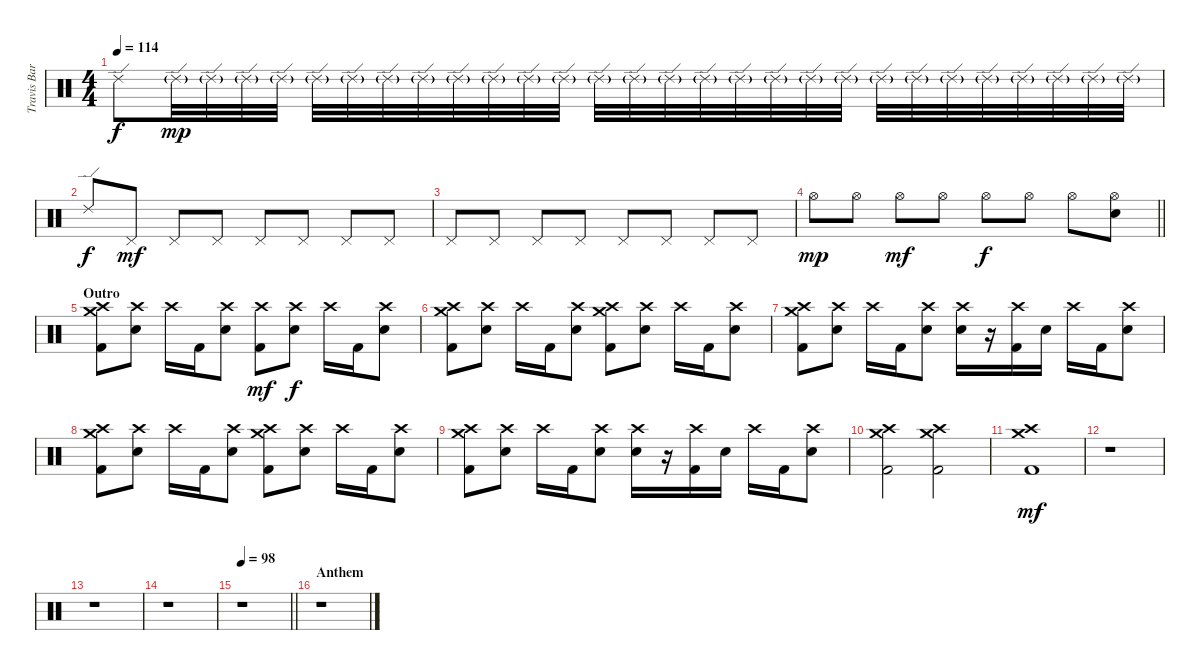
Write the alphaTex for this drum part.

\track ("Travis Barker" "Travis Bar") {instrument percussion}
\staff {score}
\articulation defaults
\ts (4 4)
\tempo 114
\clef neutral
\ks c "Ride (edge) 2".8{dy f} "Ride (edge) 2"{g}.32{dy mp} "Ride (edge) 2"{g}.32 "Ride (edge) 2"{g}.32 "Ride (edge) 2"{g}.32 "Ride (edge) 2"{g}.32 "Ride (edge) 2"{g}.32 "Ride (edge) 2"{g}.32 "Ride (edge) 2"{g}.32 "Ride (edge) 2"{g}.32 "Ride (edge) 2"{g}.32 "Ride (edge) 2"{g}.32 "Ride (edge) 2"{g}.32 "Ride (edge) 2"{g}.32 "Ride (edge) 2"{g}.32 "Ride (edge) 2"{g}.32 "Ride (edge) 2"{g}.32 "Ride (edge) 2"{g}.32 "Ride (edge) 2"{g}.32 "Ride (edge) 2"{g}.32 "Ride (edge) 2"{g}.32 "Ride (edge) 2"{g}.32 "Ride (edge) 2"{g}.32 "Ride (edge) 2"{g}.32 "Ride (edge) 2"{g}.32 "Ride (edge) 2"{g}.32 "Ride (edge) 2"{g}.32 "Ride (edge) 2"{g}.32 "Ride (edge) 2"{g}.32
|
"Ride (edge) 2".8{dy f} "Pedal Hi-Hat (hit)".8{dy mf} "Pedal Hi-Hat (hit)".8 "Pedal Hi-Hat (hit)".8 "Pedal Hi-Hat (hit)".8 "Pedal Hi-Hat (hit)".8 "Pedal Hi-Hat (hit)".8 "Pedal Hi-Hat (hit)".8 |
"Pedal Hi-Hat (hit)".8 "Pedal Hi-Hat (hit)".8 "Pedal Hi-Hat (hit)".8 "Pedal Hi-Hat (hit)".8 "Pedal Hi-Hat (hit)".8 "Pedal Hi-Hat (hit)".8 "Pedal Hi-Hat (hit)".8 "Pedal Hi-Hat (hit)".8 |
\barLineRight lightlight "Hi-Hat (open)".8{dy mp} "Hi-Hat (open)".8 "Hi-Hat (open)".8{dy mf} "Hi-Hat (open)".8 "Hi-Hat (open)".8{dy f} "Hi-Hat (open)".8 "Hi-Hat (open)".8
("Hi-Hat (open)" "Electric Snare (hit)").8 |
\section ("" "Outro")
("Crash medium (hit)" "Crash high (hit)" "Kick (hit) 2").8 ("Crash high (hit)" "Electric Snare (hit)").8 "Crash high (hit)".16 "Kick (hit) 2".16 ("Crash high (hit)" "Electric Snare (hit)").8 ("Crash high (hit)" "Kick (hit) 2").8{dy mf} ("Crash high (hit)" "Electric Snare (hit)").8{dy f} "Crash high (hit)".16 "Kick (hit) 2".16 ("Crash high (hit)" "Electric Snare (hit)").8 |
("Crash medium (hit)" "Crash high (hit)" "Kick (hit) 2").8 ("Crash high (hit)" "Electric Snare (hit)").8 "Crash high (hit)".16 "Kick (hit) 2".16 ("Crash high (hit)" "Electric Snare (hit)").8 ("Crash medium (hit)" "Crash high (hit)" "Kick (hit) 2").8 ("Crash high (hit)" "Electric Snare (hit)").8 "Crash high (hit)".16 "Kick (hit) 2".16 ("Crash high (hit)" "Electric Snare (hit)").8 |
("Crash medium (hit)" "Crash high (hit)" "Kick (hit) 2").8 ("Crash high (hit)" "Electric Snare (hit)").8 "Crash high (hit)".16 "Kick (hit) 2".16 ("Crash high (hit)" "Electric Snare (hit)").8 ("Crash high (hit)" "Electric Snare (hit)").16 r.16 ("Crash high (hit)" "Kick (hit) 2").16 "Electric Snare (hit)".16 "Crash high (hit)".16 "Kick (hit) 2".16 ("Crash high (hit)" "Electric Snare (hit)").8 |
("Crash medium (hit)" "Crash high (hit)" "Kick (hit) 2").8 ("Crash high (hit)" "Electric Snare (hit)").8 "Crash high (hit)".16 "Kick (hit) 2".16 ("Crash high (hit)" "Electric Snare (hit)").8 ("Crash medium (hit)" "Crash high (hit)" "Kick (hit) 2").8 ("Crash high (hit)" "Electric Snare (hit)").8 "Crash high (hit)".16 "Kick (hit) 2".16 ("Crash high (hit)" "Electric Snare (hit)").8 |
("Crash medium (hit)" "Crash high (hit)" "Kick (hit) 2").8 ("Crash high (hit)" "Electric Snare (hit)").8 "Crash high (hit)".16 "Kick (hit) 2".16 ("Crash high (hit)" "Electric Snare (hit)").8 ("Crash high (hit)" "Electric Snare (hit)").16 r.16 ("Crash high (hit)" "Kick (hit) 2").16 "Electric Snare (hit)".16 "Crash high (hit)".16 "Kick (hit) 2".16 ("Crash high (hit)" "Electric Snare (hit)").8 |
("Crash medium (hit)" "Crash high (hit)" "Kick (hit) 2").2 ("Crash medium (hit)" "Crash high (hit)" "Kick (hit) 2").2 |
("Crash medium (hit)" "Crash high (hit)" "Kick (hit) 2").1{dy mf} |
r.1 |
r.1 |
r.1 |
\tempo 98
\barLineRight lightlight
r.1 |
\section ("" "Anthem")
r.1
